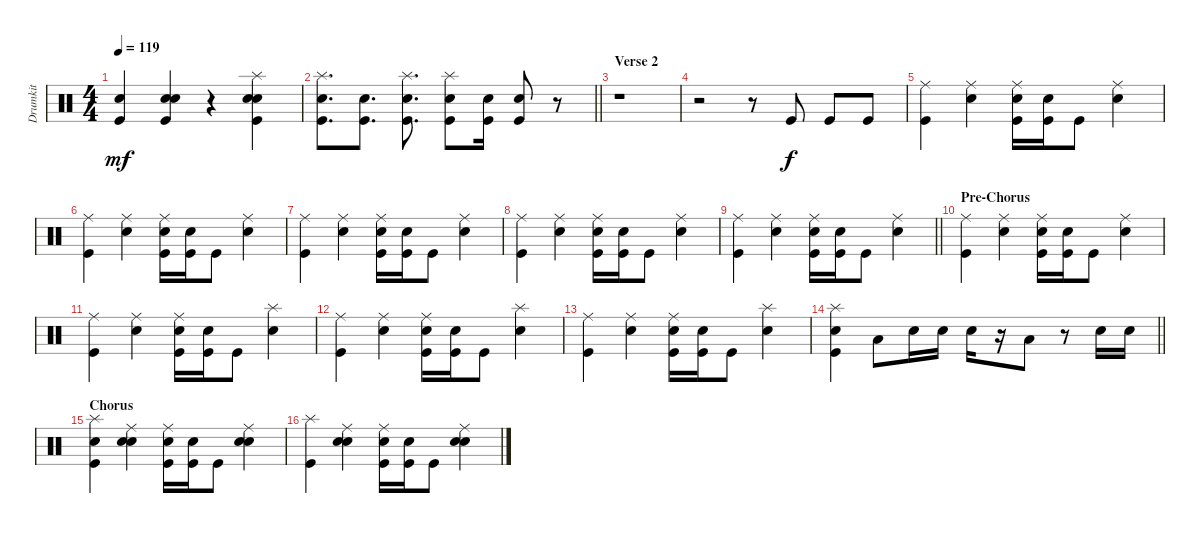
\track ("Drumkit" "Drumkit") {instrument percussion}
\staff {score}
\articulation defaults
\ts (4 4)
\tempo 119
\clef neutral
\ks c
("Kick (hit)" "Snare (hit) 2").4{dy mf} ("Hand Clap (hit)" "Kick (hit)" "Snare (hit) 2").4 r.4 ("Hand Clap (hit)" "Kick (hit)" "Snare (hit) 2" "Splash (hit)").4 |
\barLineRight lightlight
("Kick (hit)" "Splash (hit)" "Snare (hit) 2").8{d} ("Kick (hit)" "Snare (hit) 2").8{d} ("Kick (hit)" "Splash (hit)" "Snare (hit) 2").8{d} ("Kick (hit)" "Splash (hit)" "Snare (hit) 2").8 ("Kick (hit)" "Snare (hit) 2").16 ("Kick (hit)" "Snare (hit) 2").8 r.8 |
\section ("" "Verse 2")
r.1 |
r.2 r.8 "Kick (hit)".8{dy f} "Kick (hit)".8 "Kick (hit)".8 |
("Kick (hit)" "Ride (middle)").4 ("Snare (hit) 2" "Ride (middle)").4 ("Kick (hit)" "Snare (hit) 2" "Ride (middle)").16 ("Kick (hit)" "Snare (hit) 2").16 "Kick (hit)".8 ("Snare (hit) 2" "Ride (middle)").4 |
("Kick (hit)" "Ride (middle)").4 ("Snare (hit) 2" "Ride (middle)").4 ("Kick (hit)" "Snare (hit) 2" "Ride (middle)").16 ("Kick (hit)" "Snare (hit) 2").16 "Kick (hit)".8 ("Snare (hit) 2" "Ride (middle)").4 |
("Kick (hit)" "Ride (middle)").4 ("Snare (hit) 2" "Ride (middle)").4 ("Kick (hit)" "Snare (hit) 2" "Ride (middle)").16 ("Kick (hit)" "Snare (hit) 2").16 "Kick (hit)".8 ("Snare (hit) 2" "Ride (middle)").4 |
("Kick (hit)" "Ride (middle)").4 ("Snare (hit) 2" "Ride (middle)").4 ("Kick (hit)" "Snare (hit) 2" "Ride (middle)").16 ("Kick (hit)" "Snare (hit) 2").16 "Kick (hit)".8 ("Snare (hit) 2" "Ride (middle)").4 |
\barLineRight lightlight
("Kick (hit)" "Ride (middle)").4 ("Snare (hit) 2" "Ride (middle)").4 ("Kick (hit)" "Snare (hit) 2" "Ride (middle)").16 ("Kick (hit)" "Snare (hit) 2").16 "Kick (hit)".8 ("Snare (hit) 2" "Ride (middle)").4 |
\section ("" "Pre-Chorus")
("Kick (hit)" "Ride (middle)").4 ("Snare (hit) 2" "Ride (middle)").4 ("Kick (hit)" "Snare (hit) 2" "Ride (middle)").16 ("Kick (hit)" "Snare (hit) 2").16 "Kick (hit)".8 ("Snare (hit) 2" "Ride (middle)").4 |
("Kick (hit)" "Ride (middle)").4 ("Snare (hit) 2" "Ride (middle)").4 ("Kick (hit)" "Snare (hit) 2" "Ride (middle)").16 ("Kick (hit)" "Snare (hit) 2").16 "Kick (hit)".8 ("Snare (hit) 2" "Splash (hit)").4 |
("Kick (hit)" "Ride (middle)").4 ("Snare (hit) 2" "Ride (middle)").4 ("Kick (hit)" "Snare (hit) 2" "Ride (middle)").16 ("Kick (hit)" "Snare (hit) 2").16 "Kick (hit)".8 ("Snare (hit) 2" "Splash (hit)").4 |
("Kick (hit)" "Ride (middle)").4 ("Snare (hit) 2" "Ride (middle)").4 ("Kick (hit)" "Snare (hit) 2" "Ride (middle)").16 ("Kick (hit)" "Snare (hit) 2").16 "Kick (hit)".8 ("Snare (hit) 2" "Splash (hit)").4 |
\barLineRight lightlight
("Kick (hit)" "Snare (hit) 2" "Splash (hit)").4 "Low Tom (hit)".8 "Snare (hit) 2".16 "Snare (hit) 2".16 "Snare (hit) 2".16 r.16 "Low Tom (hit)".8 r.8 "Snare (hit) 2".16 "Snare (hit) 2".16 |
\section ("" "Chorus")
("Kick (hit)" "Splash (hit)" "Snare (hit) 2").4 ("Hand Clap (hit)" "Snare (hit) 2" "Ride (middle)").4 ("Kick (hit)" "Snare (hit) 2" "Ride (middle)").16 ("Kick (hit)" "Snare (hit) 2").16 "Kick (hit)".8 ("Hand Clap (hit)" "Snare (hit) 2" "Ride (middle)").4 |
("Kick (hit)" "Splash (hit)").4 ("Hand Clap (hit)" "Snare (hit) 2" "Ride (middle)").4 ("Kick (hit)" "Snare (hit) 2" "Ride (middle)").16 ("Kick (hit)" "Snare (hit) 2").16 "Kick (hit)".8 ("Hand Clap (hit)" "Snare (hit) 2" "Ride (middle)").4
